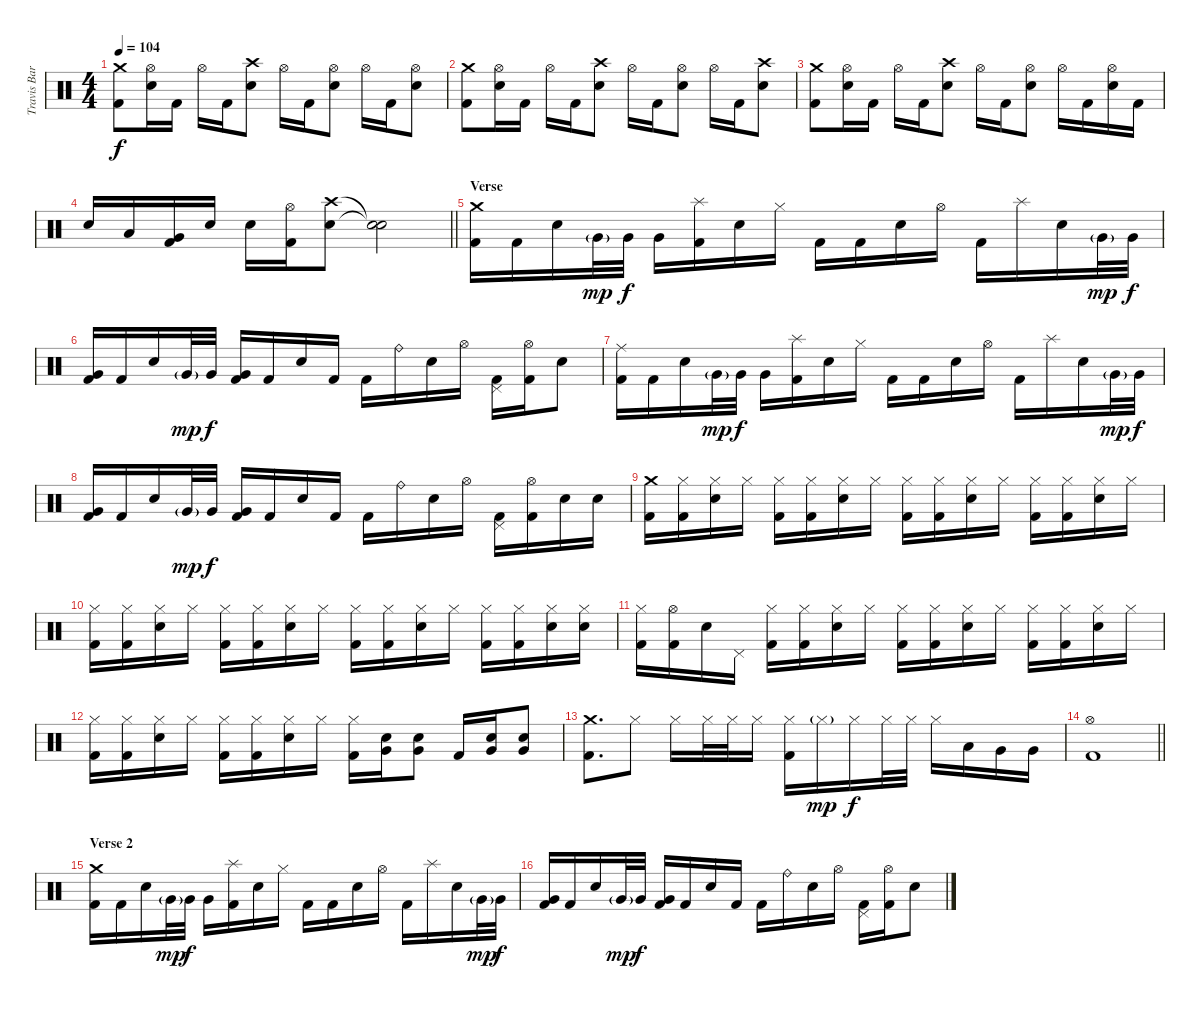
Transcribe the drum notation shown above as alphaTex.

\track ("Travis Barker - Drums" "Travis Bar") {instrument percussion}
\staff {score}
\articulation defaults
\ts (4 4)
\tempo 104
\clef neutral
\ks c
("Crash medium (hit)" "Kick (hit) 2").8{dy f} ("Hi-Hat (open)" "Electric Snare (hit)").16 "Kick (hit) 2".16 "Hi-Hat (open)".16 "Kick (hit) 2".16 ("Crash high (hit)" "Electric Snare (hit)").8 "Hi-Hat (open)".16 "Kick (hit) 2".16 ("Hi-Hat (open)" "Electric Snare (hit)").8 "Hi-Hat (open)".16 "Kick (hit) 2".16 ("Hi-Hat (open)" "Electric Snare (hit)").8 |
("Crash medium (hit)" "Kick (hit) 2").8 ("Hi-Hat (open)" "Electric Snare (hit)").16 "Kick (hit) 2".16 "Hi-Hat (open)".16 "Kick (hit) 2".16 ("Crash high (hit)" "Electric Snare (hit)").8 "Hi-Hat (open)".16 "Kick (hit) 2".16 ("Hi-Hat (open)" "Electric Snare (hit)").8 "Hi-Hat (open)".16 "Kick (hit) 2".16 ("Crash high (hit)" "Electric Snare (hit)").8 |
("Crash medium (hit)" "Kick (hit) 2").8 ("Hi-Hat (open)" "Electric Snare (hit)").16 "Kick (hit) 2".16 "Hi-Hat (open)".16 "Kick (hit) 2".16 ("Crash high (hit)" "Electric Snare (hit)").8 "Hi-Hat (open)".16 "Kick (hit) 2".16 ("Hi-Hat (open)" "Electric Snare (hit)").8 "Hi-Hat (open)".16 "Kick (hit) 2".16 ("Hi-Hat (open)" "Electric Snare (hit)").16 "Kick (hit) 2".16 |
\barLineRight lightlight "Electric Snare (hit)".16 "Low Tom (hit)".16
("Very Low Tom (hit)" "Kick (hit) 2").16 "Electric Snare (hit)".16 "Electric Snare (hit)".16 ("Hi-Hat (open)" "Kick (hit) 2").16 ("Crash high (hit)" "Electric Snare (hit)").8 ("Snare (hit)"{t} "Snare (hit)"{t}).2 |
\section ("" "Verse")
("Crash medium (hit)" "Kick (hit) 2").16 "Kick (hit) 2".16 "Electric Snare (hit)".16 "Very Low Tom (hit)"{g}.32{dy mp} "Very Low Tom (hit)".32{dy f} "Very Low Tom (hit)".16 ("Splash (hit)" "Kick (hit) 2").16 "Electric Snare (hit)".16 "Hi-Hat (closed)".16 "Kick (hit) 2".16 "Kick (hit) 2".16 "Electric Snare (hit)".16 "Hi-Hat (open)".16 "Kick (hit) 2".16 "Splash (hit)".16 "Electric Snare (hit)".16 "Very Low Tom (hit)"{g}.32{dy mp} "Very Low Tom (hit)".32{dy f} |
("Very Low Tom (hit)" "Kick (hit) 2").16 "Kick (hit) 2".16 "Electric Snare (hit)".16 "Very Low Tom (hit)"{g}.32{dy mp} "Very Low Tom (hit)".32{dy f} ("Very Low Tom (hit)" "Kick (hit) 2").16 "Kick (hit) 2".16 "Electric Snare (hit)".16 "Kick (hit) 2".16 "Kick (hit) 2".16 "Ride (bell)".16 "Electric Snare (hit)".16 "Hi-Hat (open)".16 ("Pedal Hi-Hat (hit)" "Kick (hit) 2").16 ("Hi-Hat (open)" "Kick (hit) 2").16 "Electric Snare (hit)".8 |
("Ride (middle)" "Kick (hit) 2").16 "Kick (hit) 2".16 "Electric Snare (hit)".16 "Very Low Tom (hit)"{g}.32{dy mp} "Very Low Tom (hit)".32{dy f} "Very Low Tom (hit)".16 ("Splash (hit)" "Kick (hit) 2").16 "Electric Snare (hit)".16 "Hi-Hat (closed)".16 "Kick (hit) 2".16 "Kick (hit) 2".16 "Electric Snare (hit)".16 "Hi-Hat (open)".16 "Kick (hit) 2".16 "Splash (hit)".16 "Electric Snare (hit)".16 "Very Low Tom (hit)"{g}.32{dy mp} "Very Low Tom (hit)".32{dy f} |
("Very Low Tom (hit)" "Kick (hit) 2").16 "Kick (hit) 2".16 "Electric Snare (hit)".16 "Very Low Tom (hit)"{g}.32{dy mp} "Very Low Tom (hit)".32{dy f} ("Very Low Tom (hit)" "Kick (hit) 2").16 "Kick (hit) 2".16 "Electric Snare (hit)".16 "Kick (hit) 2".16 "Kick (hit) 2".16 "Ride (bell)".16 "Electric Snare (hit)".16 "Hi-Hat (open)".16 ("Pedal Hi-Hat (hit)" "Kick (hit) 2").16 ("Hi-Hat (open)" "Kick (hit) 2").16 "Electric Snare (hit)".16 "Electric Snare (hit)".16 |
("Crash medium (hit)" "Kick (hit) 2").16 ("Hi-Hat (closed)" "Kick (hit) 2").16 ("Hi-Hat (closed)" "Electric Snare (hit)").16 "Hi-Hat (closed)".16 ("Hi-Hat (closed)" "Kick (hit) 2").16 ("Hi-Hat (closed)" "Kick (hit) 2").16 ("Hi-Hat (closed)" "Electric Snare (hit)").16 "Hi-Hat (closed)".16 ("Hi-Hat (closed)" "Kick (hit) 2").16 ("Hi-Hat (closed)" "Kick (hit) 2").16 ("Hi-Hat (closed)" "Electric Snare (hit)").16 "Hi-Hat (closed)".16 ("Hi-Hat (closed)" "Kick (hit) 2").16 ("Hi-Hat (closed)" "Kick (hit) 2").16 ("Hi-Hat (closed)" "Electric Snare (hit)").16 "Hi-Hat (closed)".16 |
("Hi-Hat (closed)" "Kick (hit) 2").16 ("Hi-Hat (closed)" "Kick (hit) 2").16 ("Hi-Hat (closed)" "Electric Snare (hit)").16 "Hi-Hat (closed)".16 ("Hi-Hat (closed)" "Kick (hit) 2").16 ("Hi-Hat (closed)" "Kick (hit) 2").16 ("Hi-Hat (closed)" "Electric Snare (hit)").16 "Hi-Hat (closed)".16 ("Hi-Hat (closed)" "Kick (hit) 2").16 ("Hi-Hat (closed)" "Kick (hit) 2").16 ("Hi-Hat (closed)" "Electric Snare (hit)").16 "Hi-Hat (closed)".16 ("Hi-Hat (closed)" "Kick (hit) 2").16 ("Hi-Hat (closed)" "Kick (hit) 2").16 ("Hi-Hat (closed)" "Electric Snare (hit)").16 ("Hi-Hat (closed)" "Electric Snare (hit)").16 |
("Hi-Hat (closed)" "Kick (hit) 2").16 ("Hi-Hat (open)" "Kick (hit) 2").16 "Electric Snare (hit)".16 "Pedal Hi-Hat (hit)".16 ("Hi-Hat (closed)" "Kick (hit) 2").16 ("Hi-Hat (closed)" "Kick (hit) 2").16 ("Hi-Hat (closed)" "Electric Snare (hit)").16 "Hi-Hat (closed)".16 ("Hi-Hat (closed)" "Kick (hit) 2").16 ("Hi-Hat (closed)" "Kick (hit) 2").16 ("Hi-Hat (closed)" "Electric Snare (hit)").16 "Hi-Hat (closed)".16 ("Hi-Hat (closed)" "Kick (hit) 2").16 ("Hi-Hat (closed)" "Kick (hit) 2").16 ("Hi-Hat (closed)" "Electric Snare (hit)").16 "Hi-Hat (closed)".16 |
("Hi-Hat (closed)" "Kick (hit) 2").16 ("Hi-Hat (closed)" "Kick (hit) 2").16 ("Hi-Hat (closed)" "Electric Snare (hit)").16 "Hi-Hat (closed)".16 ("Hi-Hat (closed)" "Kick (hit) 2").16 ("Hi-Hat (closed)" "Kick (hit) 2").16 ("Hi-Hat (closed)" "Electric Snare (hit)").16 "Hi-Hat (closed)".16 ("Hi-Hat (closed)" "Kick (hit) 2").16 ("Very Low Tom (hit)" "Electric Snare (hit)").16 ("Very Low Tom (hit)" "Electric Snare (hit)").8 "Kick (hit) 2".16 ("Very Low Tom (hit)" "Electric Snare (hit)").16 ("Very Low Tom (hit)" "Electric Snare (hit)").8 |
("Crash medium (hit)" "Kick (hit) 2").8{d} "Hi-Hat (closed)".8 "Hi-Hat (closed)".16 "Hi-Hat (closed)".32 "Hi-Hat (closed)".32 "Hi-Hat (closed)".16 ("Hi-Hat (closed)" "Kick (hit) 2").16 "Hi-Hat (closed)"{g}.16{dy mp} "Hi-Hat (closed)".16{dy f} "Hi-Hat (closed)".32 "Hi-Hat (closed)".32 "Hi-Hat (closed)".16 "Low Tom (hit)".16 "Very Low Tom (hit)".16 "Very Low Tom (hit)".16 |
\barLineRight lightlight
("Hi-Hat (open)" "Kick (hit) 2").1 |
\section ("" "Verse 2")
("Crash medium (hit)" "Kick (hit) 2").16 "Kick (hit) 2".16 "Electric Snare (hit)".16 "Very Low Tom (hit)"{g}.32{dy mp} "Very Low Tom (hit)".32{dy f} "Very Low Tom (hit)".16 ("Splash (hit)" "Kick (hit) 2").16 "Electric Snare (hit)".16 "Hi-Hat (closed)".16 "Kick (hit) 2".16 "Kick (hit) 2".16 "Electric Snare (hit)".16 "Hi-Hat (open)".16 "Kick (hit) 2".16 "Splash (hit)".16 "Electric Snare (hit)".16 "Very Low Tom (hit)"{g}.32{dy mp} "Very Low Tom (hit)".32{dy f} |
("Very Low Tom (hit)" "Kick (hit) 2").16 "Kick (hit) 2".16 "Electric Snare (hit)".16 "Very Low Tom (hit)"{g}.32{dy mp} "Very Low Tom (hit)".32{dy f} ("Very Low Tom (hit)" "Kick (hit) 2").16 "Kick (hit) 2".16 "Electric Snare (hit)".16 "Kick (hit) 2".16 "Kick (hit) 2".16 "Ride (bell)".16 "Electric Snare (hit)".16 "Hi-Hat (open)".16 ("Pedal Hi-Hat (hit)" "Kick (hit) 2").16 ("Hi-Hat (open)" "Kick (hit) 2").16 "Electric Snare (hit)".8
